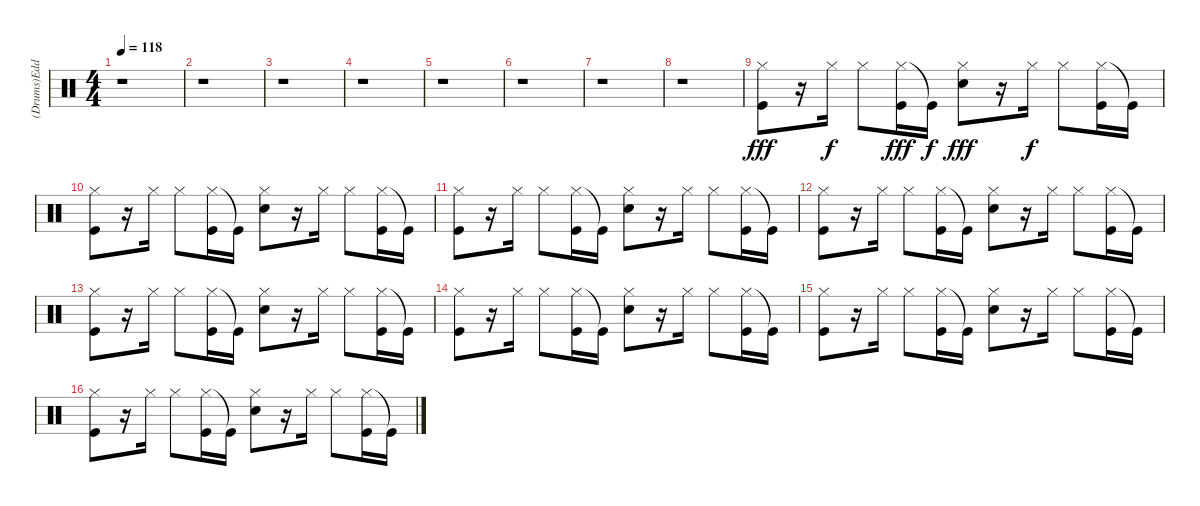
\track ("(Drums)Eddie Fisher" "(Drums)Edd") {instrument percussion}
\staff {score}
\articulation defaults
\ts (4 4)
\tempo 118
\clef neutral
\ks c
r.1{dy fff} |
r.1 |
r.1 |
r.1 |
r.1 |
r.1 |
r.1 |
r.1 |
("Hi-Hat (closed)" "Kick (hit)").8 r.16 "Hi-Hat (closed)".16{dy f} "Hi-Hat (closed)".8 ("Hi-Hat (closed)" "Kick (hit)").16{dy fff} "Kick (hit)"{t}.16{dy f} ("Hi-Hat (closed)" "Hand Clap (hit)").8{dy fff} r.16 "Hi-Hat (closed)".16{dy f} "Hi-Hat (closed)".8 ("Hi-Hat (closed)" "Kick (hit)").16 "Kick (hit)"{t}.16 |
("Hi-Hat (closed)" "Kick (hit)").8 r.16 "Hi-Hat (closed)".16 "Hi-Hat (closed)".8 ("Hi-Hat (closed)" "Kick (hit)").16 "Kick (hit)"{t}.16 ("Hi-Hat (closed)" "Hand Clap (hit)").8 r.16 "Hi-Hat (closed)".16 "Hi-Hat (closed)".8 ("Hi-Hat (closed)" "Kick (hit)").16 "Kick (hit)"{t}.16 |
("Kick (hit)" "Hi-Hat (closed)").8 r.16 "Hi-Hat (closed)".16 "Hi-Hat (closed)".8 ("Hi-Hat (closed)" "Kick (hit)").16 "Kick (hit)"{t}.16 ("Hi-Hat (closed)" "Hand Clap (hit)").8 r.16 "Hi-Hat (closed)".16 "Hi-Hat (closed)".8 ("Hi-Hat (closed)" "Kick (hit)").16 "Kick (hit)"{t}.16 |
("Hi-Hat (closed)" "Kick (hit)").8 r.16 "Hi-Hat (closed)".16 "Hi-Hat (closed)".8 ("Hi-Hat (closed)" "Kick (hit)").16 "Kick (hit)"{t}.16 ("Hi-Hat (closed)" "Hand Clap (hit)").8 r.16 "Hi-Hat (closed)".16 "Hi-Hat (closed)".8 ("Hi-Hat (closed)" "Kick (hit)").16 "Kick (hit)"{t}.16 |
("Kick (hit)" "Hi-Hat (closed)").8 r.16 "Hi-Hat (closed)".16 "Hi-Hat (closed)".8 ("Hi-Hat (closed)" "Kick (hit)").16 "Kick (hit)"{t}.16 ("Hi-Hat (closed)" "Hand Clap (hit)").8 r.16 "Hi-Hat (closed)".16 "Hi-Hat (closed)".8 ("Hi-Hat (closed)" "Kick (hit)").16 "Kick (hit)"{t}.16 |
("Hi-Hat (closed)" "Kick (hit)").8 r.16 "Hi-Hat (closed)".16 "Hi-Hat (closed)".8 ("Hi-Hat (closed)" "Kick (hit)").16 "Kick (hit)"{t}.16 ("Hi-Hat (closed)" "Hand Clap (hit)").8 r.16 "Hi-Hat (closed)".16 "Hi-Hat (closed)".8 ("Hi-Hat (closed)" "Kick (hit)").16 "Kick (hit)"{t}.16 |
("Kick (hit)" "Hi-Hat (closed)").8 r.16 "Hi-Hat (closed)".16 "Hi-Hat (closed)".8 ("Hi-Hat (closed)" "Kick (hit)").16 "Kick (hit)"{t}.16 ("Hi-Hat (closed)" "Hand Clap (hit)").8 r.16 "Hi-Hat (closed)".16 "Hi-Hat (closed)".8 ("Hi-Hat (closed)" "Kick (hit)").16 "Kick (hit)"{t}.16 |
("Kick (hit)" "Hi-Hat (closed)").8 r.16 "Hi-Hat (closed)".16 "Hi-Hat (closed)".8 ("Hi-Hat (closed)" "Kick (hit)").16 "Kick (hit)"{t}.16 ("Hi-Hat (closed)" "Hand Clap (hit)").8 r.16 "Hi-Hat (closed)".16 "Hi-Hat (closed)".8 ("Hi-Hat (closed)" "Kick (hit)").16 "Kick (hit)"{t}.16
